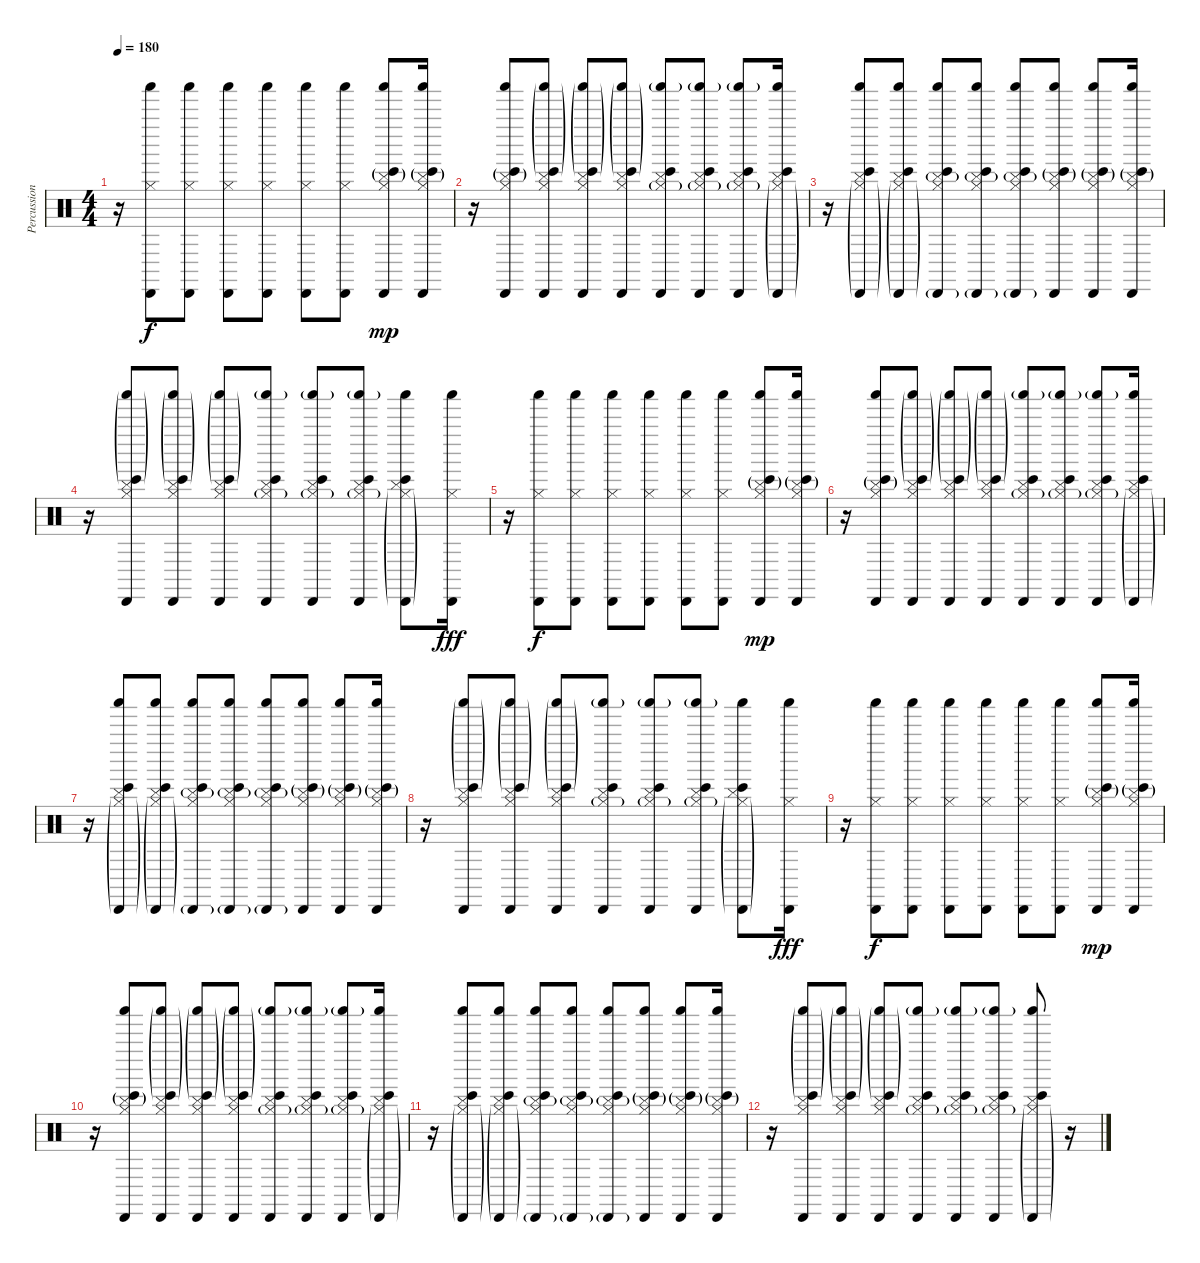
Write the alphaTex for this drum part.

\track ("Percussion" "Percussion") {instrument percussion}
\staff {score}
\articulation defaults
\ts (4 4)
\tempo 180
\clef neutral
\ks c
r.16{dy f} ("Cabasa (hit)" "Hi-Hat (closed)" "Shaker (hit)").8 ("Cabasa (hit)" "Hi-Hat (closed)" "Shaker (hit)").8 ("Cabasa (hit)" "Hi-Hat (closed)" "Shaker (hit)").8 ("Cabasa (hit)" "Hi-Hat (closed)" "Shaker (hit)").8 ("Cabasa (hit)" "Hi-Hat (closed)" "Shaker (hit)").8 ("Cabasa (hit)" "Hi-Hat (closed)" "Shaker (hit)").8 ("Cabasa (hit)" "Hi-Hat (closed)" "Shaker (hit)" "Bongo High (hit)"{g} "Cymbal (hit)"{g}).8{dy mp} ("Cabasa (hit)" "Hi-Hat (closed)" "Shaker (hit)" "Bongo High (hit)"{g} "Cymbal (hit)"{g}).16 |
r.16 ("Cabasa (hit)" "Hi-Hat (closed)" "Shaker (hit)" "Bongo High (hit)"{g} "Cymbal (hit)"{g}).8 ("Cabasa (hit)" "Hi-Hat (closed)" "Shaker (hit)"{g} "Bongo High (hit)"{g} "Cymbal (hit)").8 ("Cabasa (hit)" "Hi-Hat (closed)" "Shaker (hit)"{g} "Bongo High (hit)"{g} "Cymbal (hit)").8 ("Cabasa (hit)" "Hi-Hat (closed)" "Shaker (hit)"{g} "Bongo High (hit)"{g} "Cymbal (hit)").8 ("Cabasa (hit)" "Hi-Hat (closed)"{g} "Shaker (hit)"{g} "Bongo High (hit)" "Cymbal (hit)").8 ("Cabasa (hit)" "Hi-Hat (closed)"{g} "Shaker (hit)"{g} "Bongo High (hit)" "Cymbal (hit)").8{volume 0} ("Cabasa (hit)" "Hi-Hat (closed)"{g} "Shaker (hit)"{g} "Bongo High (hit)" "Cymbal (hit)").8 ("Cabasa (hit)"{g} "Hi-Hat (closed)"{g} "Shaker (hit)" "Bongo High (hit)" "Cymbal (hit)").16 |
r.16 ("Cabasa (hit)"{g} "Hi-Hat (closed)"{g} "Shaker (hit)" "Bongo High (hit)" "Cymbal (hit)").8 ("Cabasa (hit)"{g} "Hi-Hat (closed)"{g} "Shaker (hit)" "Bongo High (hit)" "Cymbal (hit)").8 ("Cabasa (hit)"{g} "Hi-Hat (closed)" "Shaker (hit)" "Bongo High (hit)" "Cymbal (hit)"{g}).8 ("Cabasa (hit)"{g} "Hi-Hat (closed)" "Shaker (hit)" "Bongo High (hit)" "Cymbal (hit)"{g}).8 ("Cabasa (hit)"{g} "Hi-Hat (closed)" "Shaker (hit)" "Bongo High (hit)" "Cymbal (hit)"{g}).8 ("Cabasa (hit)" "Hi-Hat (closed)" "Shaker (hit)" "Bongo High (hit)"{g} "Cymbal (hit)"{g}).8 ("Cabasa (hit)" "Hi-Hat (closed)" "Shaker (hit)" "Bongo High (hit)"{g} "Cymbal (hit)"{g}).8 ("Cabasa (hit)" "Hi-Hat (closed)" "Shaker (hit)" "Bongo High (hit)"{g} "Cymbal (hit)"{g}).16 |
r.16 ("Cabasa (hit)" "Hi-Hat (closed)" "Shaker (hit)"{g} "Bongo High (hit)"{g} "Cymbal (hit)").8 ("Cabasa (hit)" "Hi-Hat (closed)" "Shaker (hit)"{g} "Bongo High (hit)"{g} "Cymbal (hit)").8 ("Cabasa (hit)" "Hi-Hat (closed)" "Shaker (hit)"{g} "Bongo High (hit)"{g} "Cymbal (hit)").8 ("Cabasa (hit)" "Hi-Hat (closed)"{g} "Shaker (hit)"{g} "Bongo High (hit)" "Cymbal (hit)").8 ("Cabasa (hit)" "Hi-Hat (closed)"{g} "Shaker (hit)"{g} "Bongo High (hit)" "Cymbal (hit)").8 ("Cabasa (hit)" "Hi-Hat (closed)"{g} "Shaker (hit)"{g} "Bongo High (hit)" "Cymbal (hit)").8 ("Cabasa (hit)"{g} "Hi-Hat (closed)"{g} "Shaker (hit)" "Bongo High (hit)" "Cymbal (hit)").8 ("Cabasa (hit)" "Hi-Hat (closed)" "Shaker (hit)").16{dy fff volume 16} |
r.16 ("Cabasa (hit)" "Hi-Hat (closed)" "Shaker (hit)").8{dy f} ("Cabasa (hit)" "Hi-Hat (closed)" "Shaker (hit)").8 ("Cabasa (hit)" "Hi-Hat (closed)" "Shaker (hit)").8 ("Cabasa (hit)" "Hi-Hat (closed)" "Shaker (hit)").8 ("Cabasa (hit)" "Hi-Hat (closed)" "Shaker (hit)").8 ("Cabasa (hit)" "Hi-Hat (closed)" "Shaker (hit)").8 ("Cabasa (hit)" "Hi-Hat (closed)" "Shaker (hit)" "Bongo High (hit)"{g} "Cymbal (hit)"{g}).8{dy mp} ("Cabasa (hit)" "Hi-Hat (closed)" "Shaker (hit)" "Bongo High (hit)"{g} "Cymbal (hit)"{g}).16 |
r.16 ("Cabasa (hit)" "Hi-Hat (closed)" "Shaker (hit)" "Bongo High (hit)"{g} "Cymbal (hit)"{g}).8 ("Cabasa (hit)" "Hi-Hat (closed)" "Shaker (hit)"{g} "Bongo High (hit)"{g} "Cymbal (hit)").8 ("Cabasa (hit)" "Hi-Hat (closed)" "Shaker (hit)"{g} "Bongo High (hit)"{g} "Cymbal (hit)").8 ("Cabasa (hit)" "Hi-Hat (closed)" "Shaker (hit)"{g} "Bongo High (hit)"{g} "Cymbal (hit)").8 ("Cabasa (hit)" "Hi-Hat (closed)"{g} "Shaker (hit)"{g} "Bongo High (hit)" "Cymbal (hit)").8 ("Cabasa (hit)" "Hi-Hat (closed)"{g} "Shaker (hit)"{g} "Bongo High (hit)" "Cymbal (hit)").8{volume 0} ("Cabasa (hit)" "Hi-Hat (closed)"{g} "Shaker (hit)"{g} "Bongo High (hit)" "Cymbal (hit)").8 ("Cabasa (hit)"{g} "Hi-Hat (closed)"{g} "Shaker (hit)" "Bongo High (hit)" "Cymbal (hit)").16 |
r.16 ("Cabasa (hit)"{g} "Hi-Hat (closed)"{g} "Shaker (hit)" "Bongo High (hit)" "Cymbal (hit)").8 ("Cabasa (hit)"{g} "Hi-Hat (closed)"{g} "Shaker (hit)" "Bongo High (hit)" "Cymbal (hit)").8 ("Cabasa (hit)"{g} "Hi-Hat (closed)" "Shaker (hit)" "Bongo High (hit)" "Cymbal (hit)"{g}).8 ("Cabasa (hit)"{g} "Hi-Hat (closed)" "Shaker (hit)" "Bongo High (hit)" "Cymbal (hit)"{g}).8 ("Cabasa (hit)"{g} "Hi-Hat (closed)" "Shaker (hit)" "Bongo High (hit)" "Cymbal (hit)"{g}).8 ("Cabasa (hit)" "Hi-Hat (closed)" "Shaker (hit)" "Bongo High (hit)"{g} "Cymbal (hit)"{g}).8 ("Cabasa (hit)" "Hi-Hat (closed)" "Shaker (hit)" "Bongo High (hit)"{g} "Cymbal (hit)"{g}).8 ("Cabasa (hit)" "Hi-Hat (closed)" "Shaker (hit)" "Bongo High (hit)"{g} "Cymbal (hit)"{g}).16 |
r.16 ("Cabasa (hit)" "Hi-Hat (closed)" "Shaker (hit)"{g} "Bongo High (hit)"{g} "Cymbal (hit)").8 ("Cabasa (hit)" "Hi-Hat (closed)" "Shaker (hit)"{g} "Bongo High (hit)"{g} "Cymbal (hit)").8 ("Cabasa (hit)" "Hi-Hat (closed)" "Shaker (hit)"{g} "Bongo High (hit)"{g} "Cymbal (hit)").8 ("Cabasa (hit)" "Hi-Hat (closed)"{g} "Shaker (hit)"{g} "Bongo High (hit)" "Cymbal (hit)").8 ("Cabasa (hit)" "Hi-Hat (closed)"{g} "Shaker (hit)"{g} "Bongo High (hit)" "Cymbal (hit)").8 ("Cabasa (hit)" "Hi-Hat (closed)"{g} "Shaker (hit)"{g} "Bongo High (hit)" "Cymbal (hit)").8 ("Cabasa (hit)"{g} "Hi-Hat (closed)"{g} "Shaker (hit)" "Bongo High (hit)" "Cymbal (hit)").8 ("Cabasa (hit)" "Hi-Hat (closed)" "Shaker (hit)").16{dy fff volume 16} |
r.16 ("Cabasa (hit)" "Hi-Hat (closed)" "Shaker (hit)").8{dy f} ("Cabasa (hit)" "Hi-Hat (closed)" "Shaker (hit)").8 ("Cabasa (hit)" "Hi-Hat (closed)" "Shaker (hit)").8 ("Cabasa (hit)" "Hi-Hat (closed)" "Shaker (hit)").8 ("Cabasa (hit)" "Hi-Hat (closed)" "Shaker (hit)").8 ("Cabasa (hit)" "Hi-Hat (closed)" "Shaker (hit)").8 ("Cabasa (hit)" "Hi-Hat (closed)" "Shaker (hit)" "Bongo High (hit)"{g} "Cymbal (hit)"{g}).8{dy mp} ("Cabasa (hit)" "Hi-Hat (closed)" "Shaker (hit)" "Bongo High (hit)"{g} "Cymbal (hit)"{g}).16 |
r.16 ("Cabasa (hit)" "Hi-Hat (closed)" "Shaker (hit)" "Bongo High (hit)"{g} "Cymbal (hit)"{g}).8 ("Cabasa (hit)" "Hi-Hat (closed)" "Shaker (hit)"{g} "Bongo High (hit)"{g} "Cymbal (hit)").8 ("Cabasa (hit)" "Hi-Hat (closed)" "Shaker (hit)"{g} "Bongo High (hit)"{g} "Cymbal (hit)").8 ("Cabasa (hit)" "Hi-Hat (closed)" "Shaker (hit)"{g} "Bongo High (hit)"{g} "Cymbal (hit)").8 ("Cabasa (hit)" "Hi-Hat (closed)"{g} "Shaker (hit)"{g} "Bongo High (hit)" "Cymbal (hit)").8 ("Cabasa (hit)" "Hi-Hat (closed)"{g} "Shaker (hit)"{g} "Bongo High (hit)" "Cymbal (hit)").8{volume 0} ("Cabasa (hit)" "Hi-Hat (closed)"{g} "Shaker (hit)"{g} "Bongo High (hit)" "Cymbal (hit)").8 ("Cabasa (hit)"{g} "Hi-Hat (closed)"{g} "Shaker (hit)" "Bongo High (hit)" "Cymbal (hit)").16 |
r.16 ("Cabasa (hit)"{g} "Hi-Hat (closed)"{g} "Shaker (hit)" "Bongo High (hit)" "Cymbal (hit)").8 ("Cabasa (hit)"{g} "Hi-Hat (closed)"{g} "Shaker (hit)" "Bongo High (hit)" "Cymbal (hit)").8 ("Cabasa (hit)"{g} "Hi-Hat (closed)" "Shaker (hit)" "Bongo High (hit)" "Cymbal (hit)"{g}).8 ("Cabasa (hit)"{g} "Hi-Hat (closed)" "Shaker (hit)" "Bongo High (hit)" "Cymbal (hit)"{g}).8 ("Cabasa (hit)"{g} "Hi-Hat (closed)" "Shaker (hit)" "Bongo High (hit)" "Cymbal (hit)"{g}).8 ("Cabasa (hit)" "Hi-Hat (closed)" "Shaker (hit)" "Bongo High (hit)"{g} "Cymbal (hit)"{g}).8 ("Cabasa (hit)" "Hi-Hat (closed)" "Shaker (hit)" "Bongo High (hit)"{g} "Cymbal (hit)"{g}).8 ("Cabasa (hit)" "Hi-Hat (closed)" "Shaker (hit)" "Bongo High (hit)"{g} "Cymbal (hit)"{g}).16 |
r.16 ("Cabasa (hit)" "Hi-Hat (closed)" "Shaker (hit)"{g} "Bongo High (hit)"{g} "Cymbal (hit)").8 ("Cabasa (hit)" "Hi-Hat (closed)" "Shaker (hit)"{g} "Bongo High (hit)"{g} "Cymbal (hit)").8 ("Cabasa (hit)" "Hi-Hat (closed)" "Shaker (hit)"{g} "Bongo High (hit)"{g} "Cymbal (hit)").8 ("Cabasa (hit)" "Hi-Hat (closed)"{g} "Shaker (hit)"{g} "Bongo High (hit)" "Cymbal (hit)").8 ("Cabasa (hit)" "Hi-Hat (closed)"{g} "Shaker (hit)"{g} "Bongo High (hit)" "Cymbal (hit)").8 ("Cabasa (hit)" "Hi-Hat (closed)"{g} "Shaker (hit)"{g} "Bongo High (hit)" "Cymbal (hit)").8 ("Cabasa (hit)"{g} "Hi-Hat (closed)"{g} "Shaker (hit)" "Bongo High (hit)" "Cymbal (hit)").8 r.16{volume 16}
